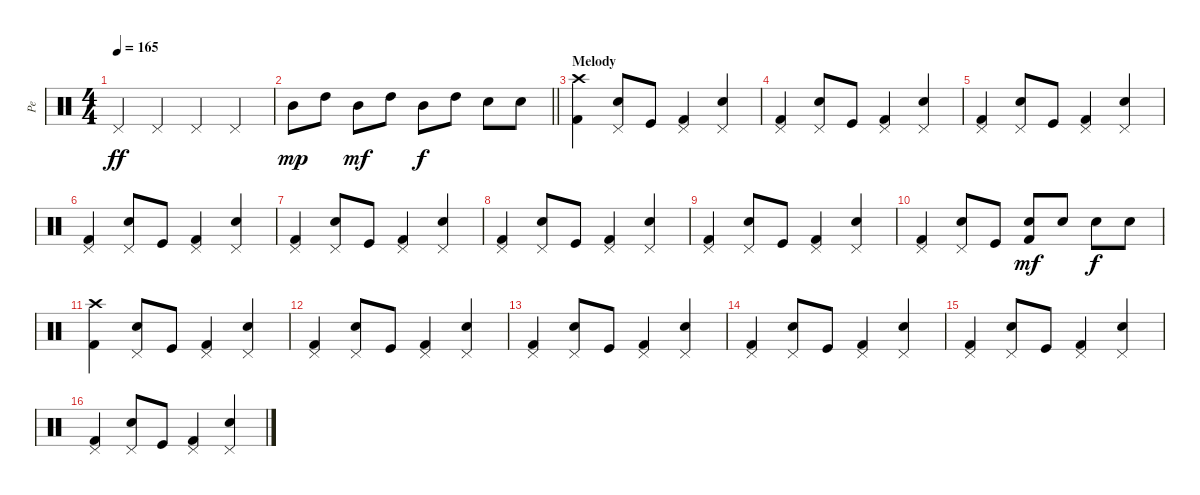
\track ("Pe" "Pe") {instrument percussion}
\staff {score}
\articulation defaults
\ts (4 4)
\tempo 165
\clef neutral
\ks c "Pedal Hi-Hat (hit)".4{dy ff} "Pedal Hi-Hat (hit)".4 "Pedal Hi-Hat (hit)".4 "Pedal Hi-Hat (hit)".4
|
\barLineRight lightlight "Mid Tom (hit)".8{dy mp} "High Tom (hit)".8 "Mid Tom (hit)".8{dy mf} "High Tom (hit)".8 "Mid Tom (hit)".8{dy f} "High Tom (hit)".8 "Electric Snare (hit)".8 "Electric Snare (hit)".8
|
\section ("" "Melody")
("Kick (hit) 2" "Crash high (hit)").4 ("Electric Snare (hit)" "Pedal Hi-Hat (hit)").8 "Kick (hit)".8 ("Kick (hit) 2" "Pedal Hi-Hat (hit)").4 ("Electric Snare (hit)" "Pedal Hi-Hat (hit)").4 |
("Kick (hit) 2" "Pedal Hi-Hat (hit)").4 ("Electric Snare (hit)" "Pedal Hi-Hat (hit)").8 "Kick (hit)".8 ("Kick (hit) 2" "Pedal Hi-Hat (hit)").4 ("Electric Snare (hit)" "Pedal Hi-Hat (hit)").4 |
("Kick (hit) 2" "Pedal Hi-Hat (hit)").4 ("Electric Snare (hit)" "Pedal Hi-Hat (hit)").8 "Kick (hit)".8 ("Kick (hit) 2" "Pedal Hi-Hat (hit)").4 ("Electric Snare (hit)" "Pedal Hi-Hat (hit)").4 |
("Kick (hit) 2" "Pedal Hi-Hat (hit)").4 ("Electric Snare (hit)" "Pedal Hi-Hat (hit)").8 "Kick (hit)".8 ("Kick (hit) 2" "Pedal Hi-Hat (hit)").4 ("Electric Snare (hit)" "Pedal Hi-Hat (hit)").4 |
("Kick (hit) 2" "Pedal Hi-Hat (hit)").4 ("Electric Snare (hit)" "Pedal Hi-Hat (hit)").8 "Kick (hit)".8 ("Kick (hit) 2" "Pedal Hi-Hat (hit)").4 ("Electric Snare (hit)" "Pedal Hi-Hat (hit)").4 |
("Kick (hit) 2" "Pedal Hi-Hat (hit)").4 ("Electric Snare (hit)" "Pedal Hi-Hat (hit)").8 "Kick (hit)".8 ("Kick (hit) 2" "Pedal Hi-Hat (hit)").4 ("Electric Snare (hit)" "Pedal Hi-Hat (hit)").4 |
("Kick (hit) 2" "Pedal Hi-Hat (hit)").4 ("Electric Snare (hit)" "Pedal Hi-Hat (hit)").8 "Kick (hit)".8 ("Kick (hit) 2" "Pedal Hi-Hat (hit)").4 ("Electric Snare (hit)" "Pedal Hi-Hat (hit)").4 |
("Kick (hit) 2" "Pedal Hi-Hat (hit)").4 ("Electric Snare (hit)" "Pedal Hi-Hat (hit)").8 "Kick (hit)".8 ("Kick (hit) 2" "Electric Snare (hit)").8{dy mf} "Electric Snare (hit)".8 "Electric Snare (hit)".8{dy f} "Electric Snare (hit)".8 |
("Kick (hit) 2" "Crash high (hit)").4 ("Electric Snare (hit)" "Pedal Hi-Hat (hit)").8 "Kick (hit)".8 ("Kick (hit) 2" "Pedal Hi-Hat (hit)").4 ("Electric Snare (hit)" "Pedal Hi-Hat (hit)").4 |
("Kick (hit) 2" "Pedal Hi-Hat (hit)").4 ("Electric Snare (hit)" "Pedal Hi-Hat (hit)").8 "Kick (hit)".8 ("Kick (hit) 2" "Pedal Hi-Hat (hit)").4 ("Electric Snare (hit)" "Pedal Hi-Hat (hit)").4 |
("Kick (hit) 2" "Pedal Hi-Hat (hit)").4 ("Electric Snare (hit)" "Pedal Hi-Hat (hit)").8 "Kick (hit)".8 ("Kick (hit) 2" "Pedal Hi-Hat (hit)").4 ("Electric Snare (hit)" "Pedal Hi-Hat (hit)").4 |
("Kick (hit) 2" "Pedal Hi-Hat (hit)").4 ("Electric Snare (hit)" "Pedal Hi-Hat (hit)").8 "Kick (hit)".8 ("Kick (hit) 2" "Pedal Hi-Hat (hit)").4 ("Electric Snare (hit)" "Pedal Hi-Hat (hit)").4 |
("Kick (hit) 2" "Pedal Hi-Hat (hit)").4 ("Electric Snare (hit)" "Pedal Hi-Hat (hit)").8 "Kick (hit)".8 ("Kick (hit) 2" "Pedal Hi-Hat (hit)").4 ("Electric Snare (hit)" "Pedal Hi-Hat (hit)").4 |
("Kick (hit) 2" "Pedal Hi-Hat (hit)").4 ("Electric Snare (hit)" "Pedal Hi-Hat (hit)").8 "Kick (hit)".8 ("Kick (hit) 2" "Pedal Hi-Hat (hit)").4 ("Electric Snare (hit)" "Pedal Hi-Hat (hit)").4
